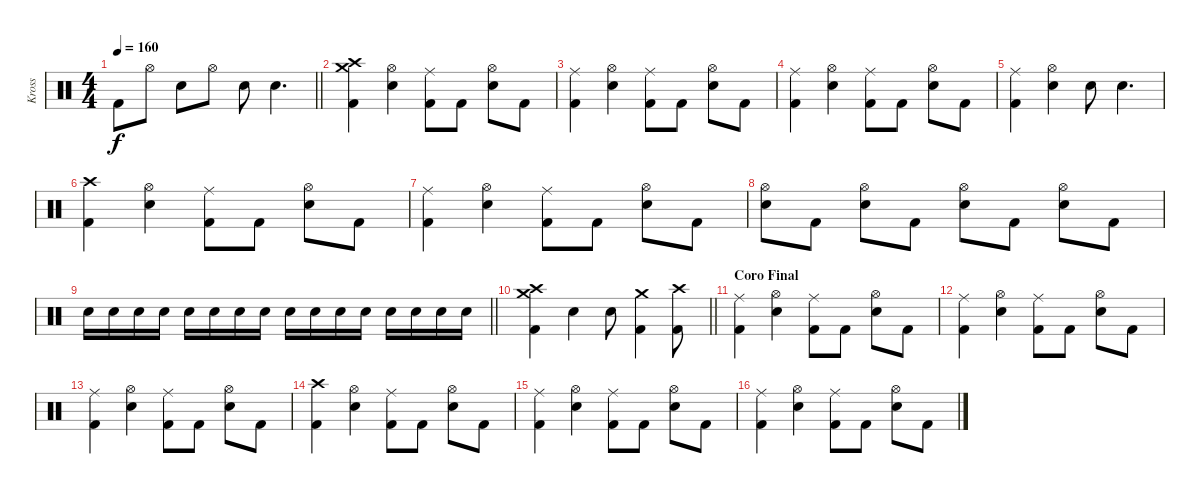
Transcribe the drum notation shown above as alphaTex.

\track ("Kross" "Kross") {instrument percussion}
\staff {score}
\articulation defaults
\ts (4 4)
\tempo 160
\clef neutral
\barLineRight lightlight
\ks c "Kick (hit) 2".8{dy f} "Hi-Hat (open)".8 "Electric Snare (hit)".8 "Hi-Hat (open)".8 "Electric Snare (hit)".8 "Electric Snare (hit)".4{d}
|
("Crash high (hit)" "Crash medium (hit)" "Kick (hit) 2").4 ("Hi-Hat (open)" "Electric Snare (hit)").4 ("Ride (middle)" "Kick (hit) 2").8 "Kick (hit) 2".8 ("Hi-Hat (open)" "Electric Snare (hit)").8 "Kick (hit) 2".8 |
("Ride (middle)" "Kick (hit) 2").4 ("Hi-Hat (open)" "Electric Snare (hit)").4 ("Ride (middle)" "Kick (hit) 2").8 "Kick (hit) 2".8 ("Hi-Hat (open)" "Electric Snare (hit)").8 "Kick (hit) 2".8 |
("Ride (middle)" "Kick (hit) 2").4 ("Hi-Hat (open)" "Electric Snare (hit)").4 ("Ride (middle)" "Kick (hit) 2").8 "Kick (hit) 2".8 ("Hi-Hat (open)" "Electric Snare (hit)").8 "Kick (hit) 2".8 |
("Ride (middle)" "Kick (hit) 2").4 ("Hi-Hat (open)" "Electric Snare (hit)").4 "Electric Snare (hit)".8 "Electric Snare (hit)".4{d} |
("Crash high (hit)" "Kick (hit) 2").4 ("Hi-Hat (open)" "Electric Snare (hit)").4 ("Ride (middle)" "Kick (hit) 2").8 "Kick (hit) 2".8 ("Hi-Hat (open)" "Electric Snare (hit)").8 "Kick (hit) 2".8 |
("Ride (middle)" "Kick (hit) 2").4 ("Hi-Hat (open)" "Electric Snare (hit)").4 ("Ride (middle)" "Kick (hit) 2").8 "Kick (hit) 2".8 ("Hi-Hat (open)" "Electric Snare (hit)").8 "Kick (hit) 2".8 |
("Hi-Hat (open)" "Electric Snare (hit)").8 "Kick (hit) 2".8 ("Hi-Hat (open)" "Electric Snare (hit)").8 "Kick (hit) 2".8 ("Hi-Hat (open)" "Electric Snare (hit)").8 "Kick (hit) 2".8 ("Hi-Hat (open)" "Electric Snare (hit)").8 "Kick (hit) 2".8 |
\barLineRight lightlight "Electric Snare (hit)".16 "Electric Snare (hit)".16 "Electric Snare (hit)".16 "Electric Snare (hit)".16 "Electric Snare (hit)".16 "Electric Snare (hit)".16 "Electric Snare (hit)".16 "Electric Snare (hit)".16 "Electric Snare (hit)".16 "Electric Snare (hit)".16 "Electric Snare (hit)".16 "Electric Snare (hit)".16 "Electric Snare (hit)".16 "Electric Snare (hit)".16 "Electric Snare (hit)".16 "Electric Snare (hit)".16
|
\barLineRight lightlight
("Crash high (hit)" "Crash medium (hit)" "Kick (hit) 2").4 "Electric Snare (hit)".4 "Electric Snare (hit)".8 ("Crash medium (hit)" "Kick (hit) 2").4 ("Crash high (hit)" "Kick (hit) 2").8 |
\section ("" "Coro Final")
("Ride (middle)" "Kick (hit) 2").4 ("Hi-Hat (open)" "Electric Snare (hit)").4 ("Ride (middle)" "Kick (hit) 2").8 "Kick (hit) 2".8 ("Hi-Hat (open)" "Electric Snare (hit)").8 "Kick (hit) 2".8 |
("Ride (middle)" "Kick (hit) 2").4 ("Hi-Hat (open)" "Electric Snare (hit)").4 ("Ride (middle)" "Kick (hit) 2").8 "Kick (hit) 2".8 ("Hi-Hat (open)" "Electric Snare (hit)").8 "Kick (hit) 2".8 |
("Ride (middle)" "Kick (hit) 2").4 ("Hi-Hat (open)" "Electric Snare (hit)").4 ("Ride (middle)" "Kick (hit) 2").8 "Kick (hit) 2".8 ("Hi-Hat (open)" "Electric Snare (hit)").8 "Kick (hit) 2".8 |
("Crash high (hit)" "Kick (hit) 2").4 ("Hi-Hat (open)" "Electric Snare (hit)").4 ("Ride (middle)" "Kick (hit) 2").8 "Kick (hit) 2".8 ("Hi-Hat (open)" "Electric Snare (hit)").8 "Kick (hit) 2".8 |
("Ride (middle)" "Kick (hit) 2").4 ("Hi-Hat (open)" "Electric Snare (hit)").4 ("Ride (middle)" "Kick (hit) 2").8 "Kick (hit) 2".8 ("Hi-Hat (open)" "Electric Snare (hit)").8 "Kick (hit) 2".8 |
("Ride (middle)" "Kick (hit) 2").4 ("Hi-Hat (open)" "Electric Snare (hit)").4 ("Ride (middle)" "Kick (hit) 2").8 "Kick (hit) 2".8 ("Hi-Hat (open)" "Electric Snare (hit)").8 "Kick (hit) 2".8
